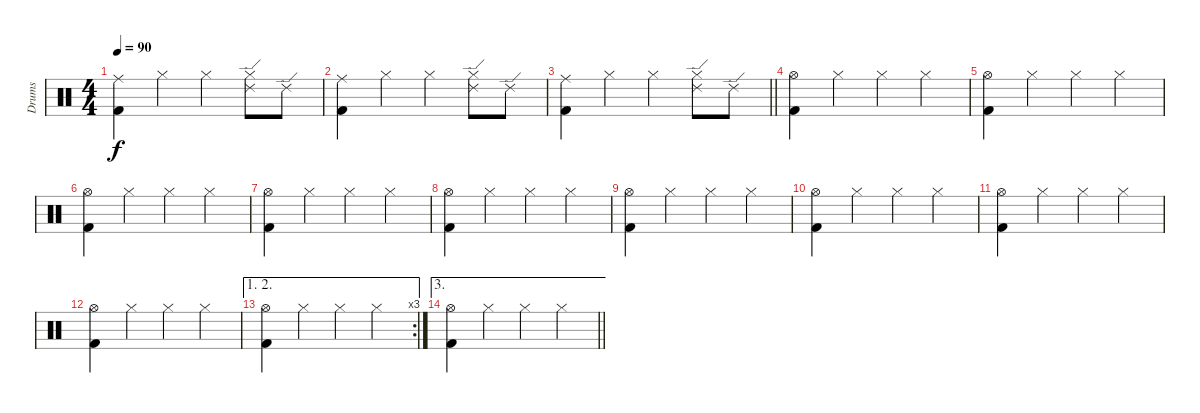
\track ("Drums" "Drums") {instrument percussion}
\staff {score}
\articulation defaults
\ts (4 4)
\tempo 90
\clef neutral
\ks c
("Ride (middle)" "Kick (hit) 2").4{dy f} "Hi-Hat (closed)".4 "Hi-Hat (closed)".4 ("Hi-Hat (closed)" "Ride (edge) 2").8 "Ride (edge) 2".8 |
("Ride (middle)" "Kick (hit) 2").4 "Hi-Hat (closed)".4 "Hi-Hat (closed)".4 ("Hi-Hat (closed)" "Ride (edge) 2").8 "Ride (edge) 2".8 |
\barLineRight lightlight
("Ride (middle)" "Kick (hit) 2").4 "Hi-Hat (closed)".4 "Hi-Hat (closed)".4 ("Hi-Hat (closed)" "Ride (edge) 2").8 "Ride (edge) 2".8 |
("Hi-Hat (open)" "Kick (hit) 2").4 "Hi-Hat (closed)".4 "Hi-Hat (closed)".4 "Hi-Hat (closed)".4 |
("Hi-Hat (open)" "Kick (hit) 2").4 "Hi-Hat (closed)".4 "Hi-Hat (closed)".4 "Hi-Hat (closed)".4 |
("Hi-Hat (open)" "Kick (hit) 2").4 "Hi-Hat (closed)".4 "Hi-Hat (closed)".4 "Hi-Hat (closed)".4 |
("Hi-Hat (open)" "Kick (hit) 2").4 "Hi-Hat (closed)".4 "Hi-Hat (closed)".4 "Hi-Hat (closed)".4 |
("Hi-Hat (open)" "Kick (hit) 2").4 "Hi-Hat (closed)".4 "Hi-Hat (closed)".4 "Hi-Hat (closed)".4 |
("Hi-Hat (open)" "Kick (hit) 2").4 "Hi-Hat (closed)".4 "Hi-Hat (closed)".4 "Hi-Hat (closed)".4 |
("Hi-Hat (open)" "Kick (hit) 2").4 "Hi-Hat (closed)".4 "Hi-Hat (closed)".4 "Hi-Hat (closed)".4 |
("Hi-Hat (open)" "Kick (hit) 2").4 "Hi-Hat (closed)".4 "Hi-Hat (closed)".4 "Hi-Hat (closed)".4 |
("Hi-Hat (open)" "Kick (hit) 2").4 "Hi-Hat (closed)".4 "Hi-Hat (closed)".4 "Hi-Hat (closed)".4 |
\ae (1 2)
\rc 3
("Hi-Hat (open)" "Kick (hit) 2").4 "Hi-Hat (closed)".4 "Hi-Hat (closed)".4 "Hi-Hat (closed)".4 |
\ae 3
\barLineRight lightlight
("Hi-Hat (open)" "Kick (hit) 2").4 "Hi-Hat (closed)".4 "Hi-Hat (closed)".4 "Hi-Hat (closed)".4
